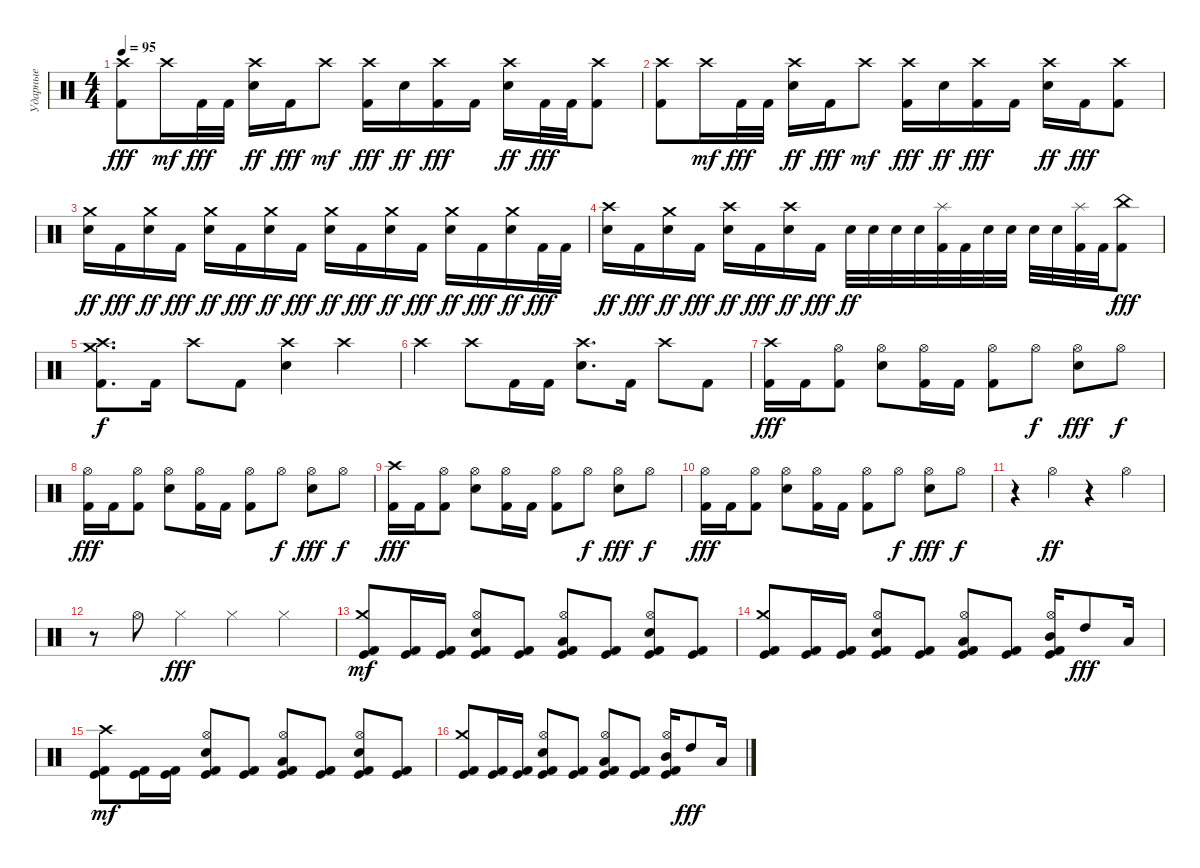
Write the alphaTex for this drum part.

\track ("Ударные" "Ударные") {instrument percussion}
\staff {score}
\articulation defaults
\ts (4 4)
\tempo 95
\clef neutral
\ks c
("Crash high (hit)" "Kick (hit) 2").8{dy fff} "Crash high (hit)".16{dy mf} "Kick (hit) 2".32{dy fff} "Kick (hit) 2".32 ("Crash high (hit)" "Electric Snare (hit)").16{dy ff} "Kick (hit) 2".16{dy fff} "Crash high (hit)".8{dy mf} ("Crash high (hit)" "Kick (hit) 2").16{dy fff} "Electric Snare (hit)".16{dy ff} ("Crash high (hit)" "Kick (hit) 2").16{dy fff} "Kick (hit) 2".16 ("Crash high (hit)" "Electric Snare (hit)").16{dy ff} "Kick (hit) 2".32{dy fff} "Kick (hit) 2".32 ("Crash high (hit)" "Kick (hit) 2").8 |
("Crash high (hit)" "Kick (hit) 2").8 "Crash high (hit)".16{dy mf} "Kick (hit) 2".32{dy fff} "Kick (hit) 2".32 ("Crash high (hit)" "Electric Snare (hit)").16{dy ff} "Kick (hit) 2".16{dy fff} "Crash high (hit)".8{dy mf} ("Crash high (hit)" "Kick (hit) 2").16{dy fff} "Electric Snare (hit)".16{dy ff} ("Crash high (hit)" "Kick (hit) 2").16{dy fff} "Kick (hit) 2".16 ("Crash high (hit)" "Electric Snare (hit)").16{dy ff} "Kick (hit) 2".16{dy fff} ("Crash high (hit)" "Kick (hit) 2").8 |
("Crash medium (hit)" "Electric Snare (hit)").16{dy ff} "Kick (hit) 2".16{dy fff} ("Crash medium (hit)" "Electric Snare (hit)").16{dy ff} "Kick (hit) 2".16{dy fff} ("Crash medium (hit)" "Electric Snare (hit)").16{dy ff} "Kick (hit) 2".16{dy fff} ("Crash medium (hit)" "Electric Snare (hit)").16{dy ff} "Kick (hit) 2".16{dy fff} ("Crash medium (hit)" "Electric Snare (hit)").16{dy ff} "Kick (hit) 2".16{dy fff} ("Crash medium (hit)" "Electric Snare (hit)").16{dy ff} "Kick (hit) 2".16{dy fff} ("Crash medium (hit)" "Electric Snare (hit)").16{dy ff} "Kick (hit) 2".16{dy fff} ("Crash medium (hit)" "Electric Snare (hit)").16{dy ff} "Kick (hit) 2".32{dy fff} "Kick (hit) 2".32 |
("Crash high (hit)" "Electric Snare (hit)").16{dy ff} "Kick (hit) 2".16{dy fff} ("Crash medium (hit)" "Electric Snare (hit)").16{dy ff} "Kick (hit) 2".16{dy fff} ("Crash high (hit)" "Electric Snare (hit)").16{dy ff} "Kick (hit) 2".16{dy fff} ("Crash high (hit)" "Electric Snare (hit)").16{dy ff} "Kick (hit) 2".16{dy fff} "Electric Snare (hit)".32{dy ff} "Electric Snare (hit)".32 "Electric Snare (hit)".32 "Electric Snare (hit)".32 ("Splash (hit)" "Kick (hit) 2").32 "Kick (hit) 2".32 "Electric Snare (hit)".32 "Electric Snare (hit)".32 "Electric Snare (hit)".32 "Electric Snare (hit)".32 ("Splash (hit)" "Kick (hit) 2").32 "Kick (hit) 2".32 ("China (hit)" "Kick (hit) 2").8{dy fff} |
("Crash medium (hit)" "Crash high (hit)" "Kick (hit) 2").8{d dy f} "Kick (hit) 2".16 "Crash high (hit)".8 "Kick (hit) 2".8 ("Crash high (hit)" "Electric Snare (hit)").4 "Crash high (hit)".4 |
"Crash high (hit)".4 "Crash high (hit)".8 "Kick (hit) 2".16 "Kick (hit) 2".16 ("Crash high (hit)" "Electric Snare (hit)").8{d} "Kick (hit) 2".16 "Crash high (hit)".8 "Kick (hit) 2".8 |
("Crash high (hit)" "Kick (hit) 2").16{dy fff} "Kick (hit) 2".16 ("Hi-Hat (open)" "Kick (hit) 2").8 ("Hi-Hat (open)" "Electric Snare (hit)").8 ("Hi-Hat (open)" "Kick (hit) 2").16 "Kick (hit) 2".16 ("Hi-Hat (open)" "Kick (hit) 2").8 "Hi-Hat (open)".8{dy f} ("Hi-Hat (open)" "Electric Snare (hit)").8{dy fff} "Hi-Hat (open)".8{dy f} |
("Hi-Hat (open)" "Kick (hit) 2").16{dy fff} "Kick (hit) 2".16 ("Hi-Hat (open)" "Kick (hit) 2").8 ("Hi-Hat (open)" "Electric Snare (hit)").8 ("Hi-Hat (open)" "Kick (hit) 2").16 "Kick (hit) 2".16 ("Hi-Hat (open)" "Kick (hit) 2").8 "Hi-Hat (open)".8{dy f} ("Hi-Hat (open)" "Electric Snare (hit)").8{dy fff} "Hi-Hat (open)".8{dy f} |
("Crash high (hit)" "Kick (hit) 2").16{dy fff} "Kick (hit) 2".16 ("Hi-Hat (open)" "Kick (hit) 2").8 ("Hi-Hat (open)" "Electric Snare (hit)").8 ("Hi-Hat (open)" "Kick (hit) 2").16 "Kick (hit) 2".16 ("Hi-Hat (open)" "Kick (hit) 2").8 "Hi-Hat (open)".8{dy f} ("Hi-Hat (open)" "Electric Snare (hit)").8{dy fff} "Hi-Hat (open)".8{dy f} |
("Hi-Hat (open)" "Kick (hit) 2").16{dy fff} "Kick (hit) 2".16 ("Hi-Hat (open)" "Kick (hit) 2").8 ("Hi-Hat (open)" "Electric Snare (hit)").8 ("Hi-Hat (open)" "Kick (hit) 2").16 "Kick (hit) 2".16 ("Hi-Hat (open)" "Kick (hit) 2").8 "Hi-Hat (open)".8{dy f} ("Hi-Hat (open)" "Electric Snare (hit)").8{dy fff} "Hi-Hat (open)".8{dy f} |
r.4 "Hi-Hat (open)".4{dy ff} r.4 "Hi-Hat (open)".4 |
r.8 "Hi-Hat (open)".8 "Hi-Hat (closed)".4{dy fff} "Hi-Hat (closed)".4 "Hi-Hat (closed)".4 |
("Crash medium (hit)" "Kick (hit) 2" "Kick (hit)").8{dy mf} ("Kick (hit) 2" "Kick (hit)").16 ("Kick (hit) 2" "Kick (hit)").16 ("Hi-Hat (open)" "Electric Snare (hit)" "Kick (hit) 2" "Kick (hit)").8 ("Kick (hit) 2" "Kick (hit)").8 ("Hi-Hat (open)" "Low Floor Tom (hit)" "Kick (hit) 2" "Kick (hit)").8 ("Kick (hit) 2" "Kick (hit)").8 ("Hi-Hat (open)" "Electric Snare (hit)" "Kick (hit) 2" "Kick (hit)").8 ("Kick (hit) 2" "Kick (hit)").8 |
("Crash medium (hit)" "Kick (hit) 2" "Kick (hit)").8 ("Kick (hit) 2" "Kick (hit)").16 ("Kick (hit) 2" "Kick (hit)").16 ("Hi-Hat (open)" "Electric Snare (hit)" "Kick (hit) 2" "Kick (hit)").8 ("Kick (hit) 2" "Kick (hit)").8 ("Hi-Hat (open)" "Low Floor Tom (hit)" "Kick (hit) 2" "Kick (hit)").8 ("Kick (hit) 2" "Kick (hit)").8 ("Hi-Hat (open)" "Mid Tom (hit)" "Kick (hit) 2" "Kick (hit)").16 "High Tom (hit)".8{dy fff} "Low Floor Tom (hit)".16 |
("Crash high (hit)" "Kick (hit) 2" "Kick (hit)").8{dy mf} ("Kick (hit) 2" "Kick (hit)").16 ("Kick (hit) 2" "Kick (hit)").16 ("Hi-Hat (open)" "Electric Snare (hit)" "Kick (hit) 2" "Kick (hit)").8 ("Kick (hit) 2" "Kick (hit)").8 ("Hi-Hat (open)" "Low Floor Tom (hit)" "Kick (hit) 2" "Kick (hit)").8 ("Kick (hit) 2" "Kick (hit)").8 ("Hi-Hat (open)" "Electric Snare (hit)" "Kick (hit) 2" "Kick (hit)").8 ("Kick (hit) 2" "Kick (hit)").8 |
("Crash medium (hit)" "Kick (hit) 2" "Kick (hit)").8 ("Kick (hit) 2" "Kick (hit)").16 ("Kick (hit) 2" "Kick (hit)").16 ("Hi-Hat (open)" "Electric Snare (hit)" "Kick (hit) 2" "Kick (hit)").8 ("Kick (hit) 2" "Kick (hit)").8 ("Hi-Hat (open)" "Low Floor Tom (hit)" "Kick (hit) 2" "Kick (hit)").8 ("Kick (hit) 2" "Kick (hit)").8 ("Hi-Hat (open)" "Mid Tom (hit)" "Kick (hit) 2" "Kick (hit)").16 "High Tom (hit)".8{dy fff} "Low Floor Tom (hit)".16
